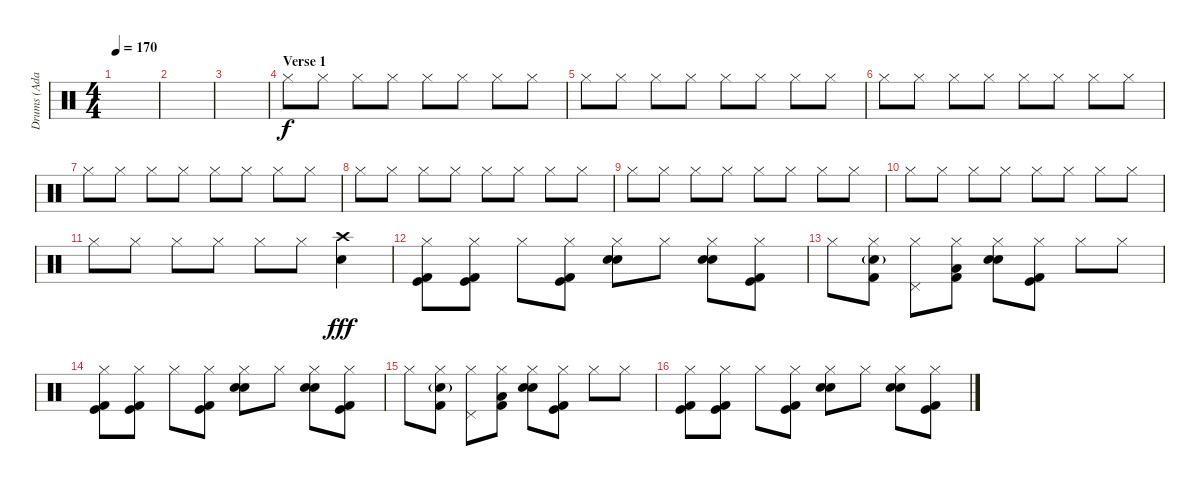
\track ("Drums (Adam)" "Drums (Ada") {instrument percussion}
\staff {score}
\articulation defaults
\ts (4 4)
\tempo 170
\clef neutral
\ks c
|
|
|
\section ("" "Verse 1")
"Hi-Hat (closed)".8 "Hi-Hat (closed)".8 "Hi-Hat (closed)".8 "Hi-Hat (closed)".8 "Hi-Hat (closed)".8 "Hi-Hat (closed)".8 "Hi-Hat (closed)".8 "Hi-Hat (closed)".8 |
"Hi-Hat (closed)".8 "Hi-Hat (closed)".8 "Hi-Hat (closed)".8 "Hi-Hat (closed)".8 "Hi-Hat (closed)".8 "Hi-Hat (closed)".8 "Hi-Hat (closed)".8 "Hi-Hat (closed)".8 |
"Hi-Hat (closed)".8 "Hi-Hat (closed)".8 "Hi-Hat (closed)".8 "Hi-Hat (closed)".8 "Hi-Hat (closed)".8 "Hi-Hat (closed)".8 "Hi-Hat (closed)".8 "Hi-Hat (closed)".8 |
"Hi-Hat (closed)".8 "Hi-Hat (closed)".8 "Hi-Hat (closed)".8 "Hi-Hat (closed)".8 "Hi-Hat (closed)".8 "Hi-Hat (closed)".8 "Hi-Hat (closed)".8 "Hi-Hat (closed)".8 |
"Hi-Hat (closed)".8 "Hi-Hat (closed)".8 "Hi-Hat (closed)".8 "Hi-Hat (closed)".8 "Hi-Hat (closed)".8 "Hi-Hat (closed)".8 "Hi-Hat (closed)".8 "Hi-Hat (closed)".8 |
"Hi-Hat (closed)".8 "Hi-Hat (closed)".8 "Hi-Hat (closed)".8 "Hi-Hat (closed)".8 "Hi-Hat (closed)".8 "Hi-Hat (closed)".8 "Hi-Hat (closed)".8 "Hi-Hat (closed)".8 |
"Hi-Hat (closed)".8 "Hi-Hat (closed)".8 "Hi-Hat (closed)".8 "Hi-Hat (closed)".8 "Hi-Hat (closed)".8 "Hi-Hat (closed)".8 "Hi-Hat (closed)".8 "Hi-Hat (closed)".8 |
"Hi-Hat (closed)".8 "Hi-Hat (closed)".8 "Hi-Hat (closed)".8 "Hi-Hat (closed)".8 "Hi-Hat (closed)".8 "Hi-Hat (closed)".8 ("Crash high (hit)" "Electric Snare (hit)").4{dy fff} |
("Hi-Hat (closed)" "Kick (hit)" "Kick (hit) 2").8 ("Hi-Hat (closed)" "Kick (hit)" "Kick (hit) 2").8 "Hi-Hat (closed)".8 ("Hi-Hat (closed)" "Kick (hit)" "Kick (hit) 2").8 ("Hi-Hat (closed)" "Snare (hit) 2" "Electric Snare (hit)").8 "Hi-Hat (closed)".8 ("Hi-Hat (closed)" "Snare (hit) 2" "Electric Snare (hit)").8 ("Hi-Hat (closed)" "Kick (hit)" "Kick (hit) 2").8 |
"Hi-Hat (closed)".8 ("Hi-Hat (closed)" "Electric Snare (hit)"{g} "Kick (hit) 2").8 ("Hi-Hat (closed)" "Pedal Hi-Hat (hit)").8 ("Hi-Hat (closed)" "Low Tom (hit)" "Kick (hit) 2").8 ("Hi-Hat (closed)" "Snare (hit) 2" "Electric Snare (hit)").8 ("Hi-Hat (closed)" "Kick (hit)" "Kick (hit) 2").8 "Hi-Hat (closed)".8 "Hi-Hat (closed)".8 |
("Hi-Hat (closed)" "Kick (hit)" "Kick (hit) 2").8 ("Hi-Hat (closed)" "Kick (hit)" "Kick (hit) 2").8 "Hi-Hat (closed)".8 ("Hi-Hat (closed)" "Kick (hit)" "Kick (hit) 2").8 ("Hi-Hat (closed)" "Snare (hit) 2" "Electric Snare (hit)").8 "Hi-Hat (closed)".8 ("Hi-Hat (closed)" "Snare (hit) 2" "Electric Snare (hit)").8 ("Hi-Hat (closed)" "Kick (hit)" "Kick (hit) 2").8 |
"Hi-Hat (closed)".8 ("Hi-Hat (closed)" "Electric Snare (hit)"{g} "Kick (hit) 2").8 ("Hi-Hat (closed)" "Pedal Hi-Hat (hit)").8 ("Hi-Hat (closed)" "Low Tom (hit)" "Kick (hit) 2").8 ("Hi-Hat (closed)" "Snare (hit) 2" "Electric Snare (hit)").8 ("Hi-Hat (closed)" "Kick (hit)" "Kick (hit) 2").8 "Hi-Hat (closed)".8 "Hi-Hat (closed)".8 |
("Hi-Hat (closed)" "Kick (hit)" "Kick (hit) 2").8 ("Hi-Hat (closed)" "Kick (hit)" "Kick (hit) 2").8 "Hi-Hat (closed)".8 ("Hi-Hat (closed)" "Kick (hit)" "Kick (hit) 2").8 ("Hi-Hat (closed)" "Snare (hit) 2" "Electric Snare (hit)").8 "Hi-Hat (closed)".8 ("Hi-Hat (closed)" "Snare (hit) 2" "Electric Snare (hit)").8 ("Hi-Hat (closed)" "Kick (hit)" "Kick (hit) 2").8
